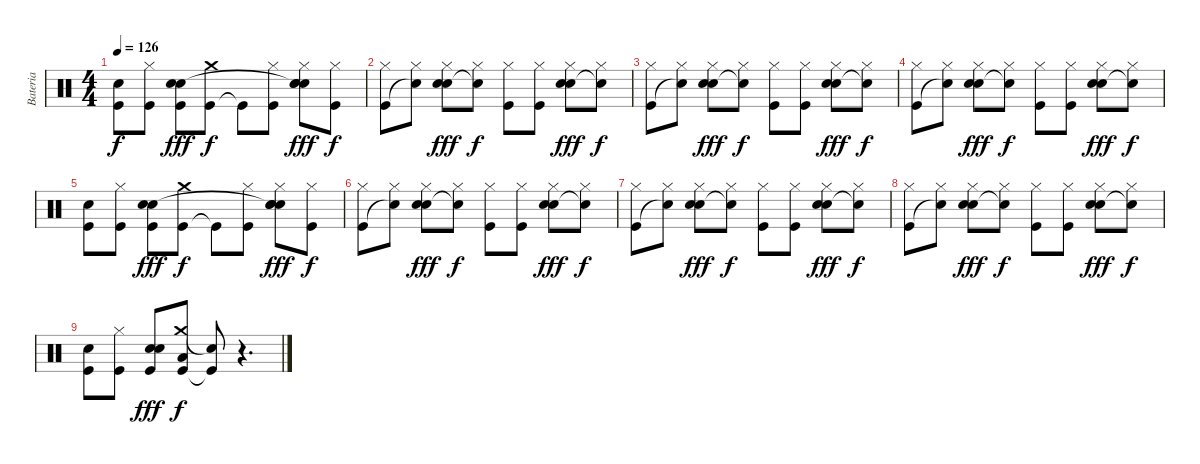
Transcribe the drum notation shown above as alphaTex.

\track ("Bateria" "Bateria") {instrument percussion}
\staff {score}
\articulation defaults
\ts (4 4)
\tempo 126
\clef neutral
\ks c
("Kick (hit)" "Snare (hit) 2").8{dy f} ("Kick (hit)" "Hi-Hat (closed)").8 ("Kick (hit)" "Snare (hit) 2" "Hand Clap (hit)").8{dy fff} ("Kick (hit)" "Crash medium (hit)").8{dy f} "Kick (hit)"{t}.8 ("Kick (hit)" "Hi-Hat (closed)").8 ("Snare (hit) 2" "Hi-Hat (closed)" "Snare (hit)"{t} "Hand Clap (hit)").8{dy fff} ("Kick (hit)" "Hi-Hat (closed)").8{dy f} |
("Kick (hit)" "Hi-Hat (closed)").8{volume 8} ("Snare (hit)"{t} "Hi-Hat (closed)").8 ("Snare (hit) 2" "Hi-Hat (closed)" "Hand Clap (hit)").8{dy fff} ("Snare (hit)"{t} "Hi-Hat (closed)").8{dy f} ("Kick (hit)" "Hi-Hat (closed)").8 ("Kick (hit)" "Hi-Hat (closed)").8 ("Snare (hit) 2" "Hi-Hat (closed)" "Hand Clap (hit)").8{dy fff} ("Snare (hit)"{t} "Hi-Hat (closed)").8{dy f} |
("Kick (hit)" "Hi-Hat (closed)").8 ("Snare (hit)"{t} "Hi-Hat (closed)").8 ("Snare (hit) 2" "Hi-Hat (closed)" "Hand Clap (hit)").8{dy fff} ("Snare (hit)"{t} "Hi-Hat (closed)").8{dy f} ("Kick (hit)" "Hi-Hat (closed)").8 ("Kick (hit)" "Hi-Hat (closed)").8 ("Snare (hit) 2" "Hi-Hat (closed)" "Hand Clap (hit)").8{dy fff} ("Snare (hit)"{t} "Hi-Hat (closed)").8{dy f} |
("Kick (hit)" "Hi-Hat (closed)").8 ("Snare (hit)"{t} "Hi-Hat (closed)").8 ("Snare (hit) 2" "Hi-Hat (closed)" "Hand Clap (hit)").8{dy fff} ("Snare (hit)"{t} "Hi-Hat (closed)").8{dy f} ("Kick (hit)" "Hi-Hat (closed)").8 ("Kick (hit)" "Hi-Hat (closed)").8 ("Snare (hit) 2" "Hi-Hat (closed)" "Hand Clap (hit)").8{dy fff} ("Snare (hit)"{t} "Hi-Hat (closed)").8{dy f} |
("Kick (hit)" "Snare (hit) 2").8 ("Kick (hit)" "Hi-Hat (closed)").8 ("Kick (hit)" "Snare (hit) 2" "Hand Clap (hit)").8{dy fff} ("Kick (hit)" "Crash medium (hit)").8{dy f} "Kick (hit)"{t}.8 ("Kick (hit)" "Hi-Hat (closed)").8 ("Snare (hit) 2" "Hi-Hat (closed)" "Snare (hit)"{t} "Hand Clap (hit)").8{dy fff} ("Kick (hit)" "Hi-Hat (closed)").8{dy f} |
("Kick (hit)" "Hi-Hat (closed)").8{volume 4} ("Snare (hit)"{t} "Hi-Hat (closed)").8 ("Snare (hit) 2" "Hi-Hat (closed)" "Hand Clap (hit)").8{dy fff} ("Snare (hit)"{t} "Hi-Hat (closed)").8{dy f} ("Kick (hit)" "Hi-Hat (closed)").8 ("Kick (hit)" "Hi-Hat (closed)").8 ("Snare (hit) 2" "Hi-Hat (closed)" "Hand Clap (hit)").8{dy fff} ("Snare (hit)"{t} "Hi-Hat (closed)").8{dy f} |
("Kick (hit)" "Hi-Hat (closed)").8 ("Snare (hit)"{t} "Hi-Hat (closed)").8 ("Snare (hit) 2" "Hi-Hat (closed)" "Hand Clap (hit)").8{dy fff} ("Snare (hit)"{t} "Hi-Hat (closed)").8{dy f} ("Kick (hit)" "Hi-Hat (closed)").8 ("Kick (hit)" "Hi-Hat (closed)").8 ("Snare (hit) 2" "Hi-Hat (closed)" "Hand Clap (hit)").8{dy fff} ("Snare (hit)"{t} "Hi-Hat (closed)").8{dy f} |
("Kick (hit)" "Hi-Hat (closed)").8 ("Snare (hit)"{t} "Hi-Hat (closed)").8 ("Snare (hit) 2" "Hi-Hat (closed)" "Hand Clap (hit)").8{dy fff} ("Snare (hit)"{t} "Hi-Hat (closed)").8{dy f} ("Kick (hit)" "Hi-Hat (closed)").8 ("Kick (hit)" "Hi-Hat (closed)").8 ("Snare (hit) 2" "Hi-Hat (closed)" "Hand Clap (hit)").8{dy fff} ("Snare (hit)"{t} "Hi-Hat (closed)").8{dy f} |
("Kick (hit)" "Snare (hit) 2").8 ("Kick (hit)" "Hi-Hat (closed)").8 ("Kick (hit)" "Snare (hit) 2" "Hand Clap (hit)").8{dy fff} ("Kick (hit)" "Crash medium (hit)" "Low Floor Tom (hit)").8{dy f} ("Kick (hit)"{t} "Snare (hit)"{t}).8 r.4{d}
